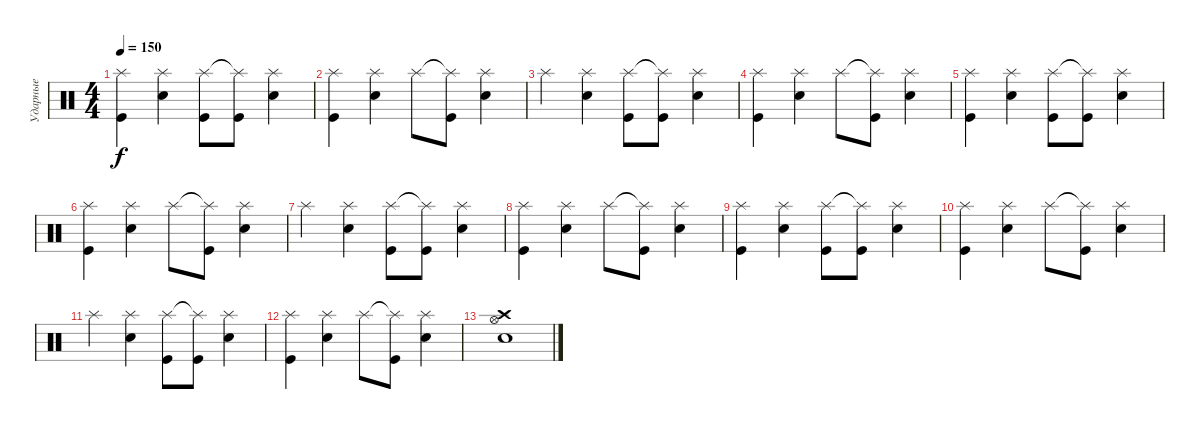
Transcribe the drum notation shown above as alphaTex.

\track ("Ударные" "Ударные") {instrument percussion}
\staff {score}
\articulation defaults
\ts (4 4)
\tempo 150
\clef neutral
\ks c
("Splash (hit)" "Kick (hit)").4{dy f} ("Splash (hit)" "Snare (hit) 2").4 ("Splash (hit)" "Kick (hit)").8 ("Splash (hit)"{t} "Kick (hit)").8 ("Splash (hit)" "Snare (hit) 2").4 |
("Splash (hit)" "Kick (hit)").4 ("Splash (hit)" "Snare (hit) 2").4 "Splash (hit)".8 ("Splash (hit)"{t} "Kick (hit)").8 ("Splash (hit)" "Snare (hit) 2").4 |
"Splash (hit)".4 ("Splash (hit)" "Snare (hit) 2").4 ("Splash (hit)" "Kick (hit)").8 ("Splash (hit)"{t} "Kick (hit)").8 ("Splash (hit)" "Snare (hit) 2").4 |
("Splash (hit)" "Kick (hit)").4 ("Splash (hit)" "Snare (hit) 2").4 "Splash (hit)".8 ("Splash (hit)"{t} "Kick (hit)").8 ("Splash (hit)" "Snare (hit) 2").4 |
("Splash (hit)" "Kick (hit)").4 ("Splash (hit)" "Snare (hit) 2").4 ("Splash (hit)" "Kick (hit)").8 ("Splash (hit)"{t} "Kick (hit)").8 ("Splash (hit)" "Snare (hit) 2").4 |
("Splash (hit)" "Kick (hit)").4 ("Splash (hit)" "Snare (hit) 2").4 "Splash (hit)".8 ("Splash (hit)"{t} "Kick (hit)").8 ("Splash (hit)" "Snare (hit) 2").4 |
"Splash (hit)".4 ("Splash (hit)" "Snare (hit) 2").4 ("Splash (hit)" "Kick (hit)").8 ("Splash (hit)"{t} "Kick (hit)").8 ("Splash (hit)" "Snare (hit) 2").4 |
("Splash (hit)" "Kick (hit)").4 ("Splash (hit)" "Snare (hit) 2").4 "Splash (hit)".8 ("Splash (hit)"{t} "Kick (hit)").8 ("Splash (hit)" "Snare (hit) 2").4 |
("Splash (hit)" "Kick (hit)").4 ("Splash (hit)" "Snare (hit) 2").4 ("Splash (hit)" "Kick (hit)").8 ("Splash (hit)"{t} "Kick (hit)").8 ("Splash (hit)" "Snare (hit) 2").4 |
("Splash (hit)" "Kick (hit)").4 ("Splash (hit)" "Snare (hit) 2").4 "Splash (hit)".8 ("Splash (hit)"{t} "Kick (hit)").8 ("Splash (hit)" "Snare (hit) 2").4 |
"Splash (hit)".4 ("Splash (hit)" "Snare (hit) 2").4 ("Splash (hit)" "Kick (hit)").8 ("Splash (hit)"{t} "Kick (hit)").8 ("Splash (hit)" "Snare (hit) 2").4 |
("Splash (hit)" "Kick (hit)").4 ("Splash (hit)" "Snare (hit) 2").4 "Splash (hit)".8 ("Splash (hit)"{t} "Kick (hit)").8 ("Splash (hit)" "Snare (hit) 2").4 |
("Crash high (hit)" "Snare (hit) 2" "Hi-Hat (open)").1
